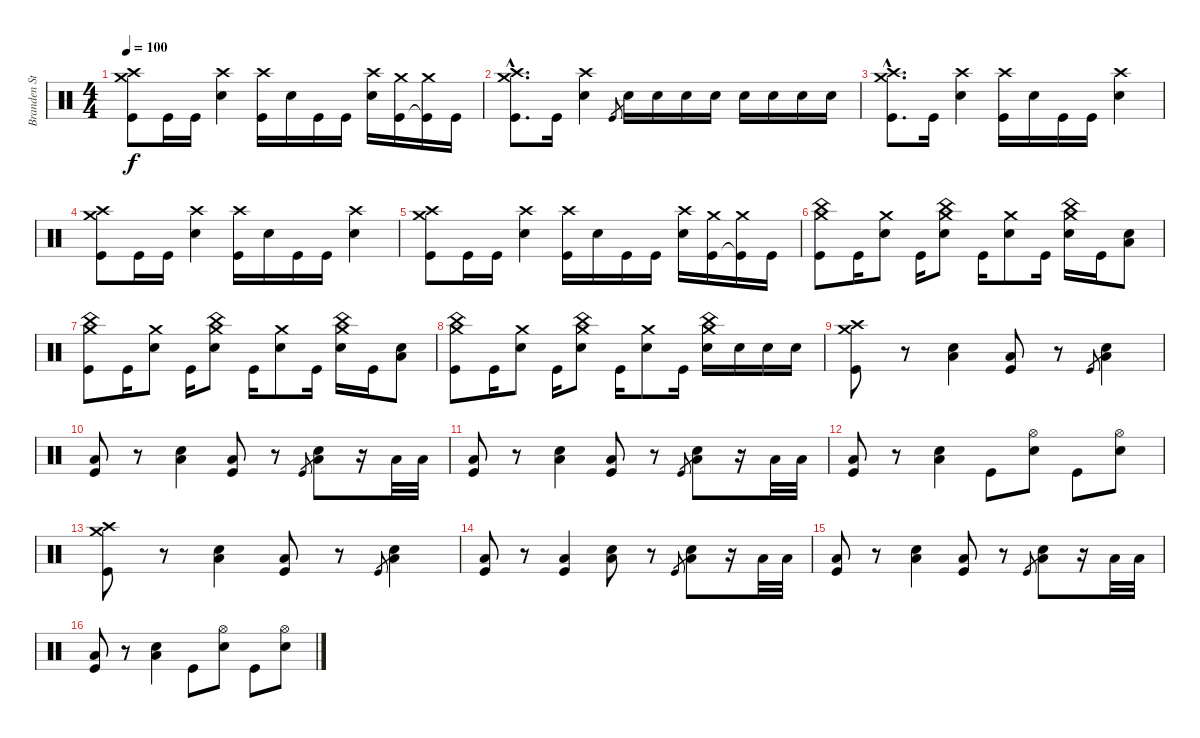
\track ("Branden Steineckert-drums" "Branden St") {instrument percussion}
\staff {score}
\articulation defaults
\ts (4 4)
\tempo 100
\clef neutral
\ks c
("Crash medium (hit)" "Crash high (hit)" "Kick (hit)").8{dy f} "Kick (hit)".16 "Kick (hit)".16 ("Crash high (hit)" "Snare (hit) 2").4 ("Crash high (hit)" "Kick (hit)").16 "Snare (hit) 2".16 "Kick (hit)".16 "Kick (hit)".16 ("Crash high (hit)" "Snare (hit) 2").16 ("Crash medium (hit)" "Kick (hit)").16 ("Crash medium (hit)" "Kick (hit)"{t}).16 "Kick (hit)".16 |
("Crash medium (hit)"{hac} "Crash high (hit)"{hac} "Kick (hit)"{hac}).8{d} "Kick (hit)".16 ("Crash high (hit)" "Snare (hit) 2").4 "Kick (hit)".8{gr} "Snare (hit) 2".16 "Snare (hit) 2".16 "Snare (hit) 2".16 "Snare (hit) 2".16 "Snare (hit) 2".16 "Snare (hit) 2".16 "Snare (hit) 2".16 "Snare (hit) 2".16 |
("Crash medium (hit)"{hac} "Crash high (hit)"{hac} "Kick (hit)"{hac}).8{d} "Kick (hit)".16 ("Crash high (hit)" "Snare (hit) 2").4 ("Crash high (hit)" "Kick (hit)").16 "Snare (hit) 2".16 "Kick (hit)".16 "Kick (hit)".16 ("Crash high (hit)" "Snare (hit) 2").4 |
("Crash medium (hit)" "Crash high (hit)" "Kick (hit)").8 "Kick (hit)".16 "Kick (hit)".16 ("Crash high (hit)" "Snare (hit) 2").4 ("Crash high (hit)" "Kick (hit)").16 "Snare (hit) 2".16 "Kick (hit)".16 "Kick (hit)".16 ("Crash high (hit)" "Snare (hit) 2").4 |
("Crash medium (hit)" "Crash high (hit)" "Kick (hit)").8 "Kick (hit)".16 "Kick (hit)".16 ("Crash high (hit)" "Snare (hit) 2").4 ("Crash high (hit)" "Kick (hit)").16 "Snare (hit) 2".16 "Kick (hit)".16 "Kick (hit)".16 ("Crash high (hit)" "Snare (hit) 2").16 ("Crash medium (hit)" "Kick (hit)").16 ("Crash medium (hit)" "Kick (hit)"{t}).16 "Kick (hit)".16 |
("China (hit)" "Crash medium (hit)" "Kick (hit)").8 "Kick (hit)".16 ("Crash medium (hit)" "Snare (hit) 2").8 "Kick (hit)".16 ("China (hit)" "Crash medium (hit)" "Snare (hit) 2").8 "Kick (hit)".16 ("Crash medium (hit)" "Snare (hit) 2").8 "Kick (hit)".16 ("China (hit)" "Crash medium (hit)" "Snare (hit) 2").16 "Kick (hit)".16 ("Low Tom (hit)" "Snare (hit) 2").8 |
("China (hit)" "Crash medium (hit)" "Kick (hit)").8 "Kick (hit)".16 ("Crash medium (hit)" "Snare (hit) 2").8 "Kick (hit)".16 ("China (hit)" "Crash medium (hit)" "Snare (hit) 2").8 "Kick (hit)".16 ("Crash medium (hit)" "Snare (hit) 2").8 "Kick (hit)".16 ("China (hit)" "Crash medium (hit)" "Snare (hit) 2").16 "Kick (hit)".16 ("Low Tom (hit)" "Snare (hit) 2").8 |
("China (hit)" "Crash medium (hit)" "Kick (hit)").8 "Kick (hit)".16 ("Crash medium (hit)" "Snare (hit) 2").8 "Kick (hit)".16 ("China (hit)" "Crash medium (hit)" "Snare (hit) 2").8 "Kick (hit)".16 ("Crash medium (hit)" "Snare (hit) 2").8 "Kick (hit)".16 ("China (hit)" "Crash medium (hit)" "Snare (hit) 2").16 "Snare (hit) 2".16 "Snare (hit) 2".16 "Snare (hit) 2".16 |
("Crash medium (hit)" "Crash high (hit)" "Kick (hit)").8 r.8 ("Snare (hit) 2" "Low Floor Tom (hit)").4 ("Low Floor Tom (hit)" "Kick (hit)").8 r.8 "Kick (hit)".8{gr} ("Snare (hit) 2" "Low Floor Tom (hit)").4 |
("Low Floor Tom (hit)" "Kick (hit)").8 r.8 ("Snare (hit) 2" "Low Floor Tom (hit)").4 ("Low Floor Tom (hit)" "Kick (hit)").8 r.8 "Kick (hit)".8{gr} ("Snare (hit) 2" "Low Floor Tom (hit)").8 r.16 "Low Floor Tom (hit)".32 "Low Floor Tom (hit)".32 |
("Low Floor Tom (hit)" "Kick (hit)").8 r.8 ("Snare (hit) 2" "Low Floor Tom (hit)").4 ("Low Floor Tom (hit)" "Kick (hit)").8 r.8 "Kick (hit)".8{gr} ("Snare (hit) 2" "Low Floor Tom (hit)").8 r.16 "Low Floor Tom (hit)".32 "Low Floor Tom (hit)".32 |
("Low Floor Tom (hit)" "Kick (hit)").8 r.8 ("Snare (hit) 2" "Low Floor Tom (hit)").4 "Kick (hit)".8 ("Hi-Hat (open)" "Snare (hit) 2").8 "Kick (hit)".8 ("Hi-Hat (open)" "Snare (hit) 2").8 |
("Crash medium (hit)" "Crash high (hit)" "Kick (hit)").8 r.8 ("Snare (hit) 2" "Low Floor Tom (hit)").4 ("Low Floor Tom (hit)" "Kick (hit)").8 r.8 "Kick (hit)".8{gr} ("Snare (hit) 2" "Low Floor Tom (hit)").4 |
("Low Floor Tom (hit)" "Kick (hit)").8 r.8 ("Low Floor Tom (hit)" "Kick (hit)").4 ("Snare (hit) 2" "Low Floor Tom (hit)").8 r.8 "Kick (hit)".8{gr} ("Snare (hit) 2" "Low Floor Tom (hit)").8 r.16 "Low Floor Tom (hit)".32 "Low Floor Tom (hit)".32 |
("Low Floor Tom (hit)" "Kick (hit)").8 r.8 ("Snare (hit) 2" "Low Floor Tom (hit)").4 ("Low Floor Tom (hit)" "Kick (hit)").8 r.8 "Kick (hit)".8{gr} ("Snare (hit) 2" "Low Floor Tom (hit)").8 r.16 "Low Floor Tom (hit)".32 "Low Floor Tom (hit)".32 |
("Low Floor Tom (hit)" "Kick (hit)").8 r.8 ("Snare (hit) 2" "Low Floor Tom (hit)").4 "Kick (hit)".8 ("Hi-Hat (open)" "Snare (hit) 2").8 "Kick (hit)".8 ("Hi-Hat (open)" "Snare (hit) 2").8
